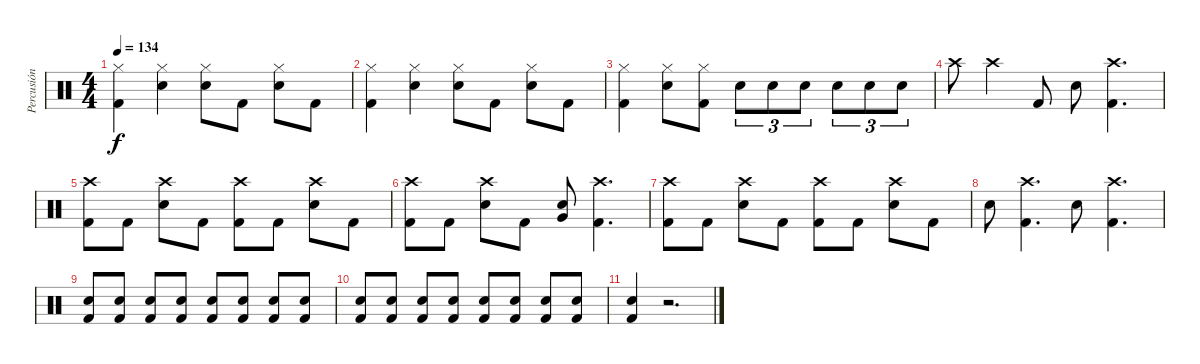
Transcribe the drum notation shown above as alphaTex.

\track ("Percusión" "Percusión") {instrument percussion}
\staff {score}
\articulation defaults
\ts (4 4)
\tempo 134
\clef neutral
\ks c
("Hi-Hat (closed)" "Kick (hit) 2").4{dy f} ("Hi-Hat (closed)" "Snare (hit) 2").4 ("Hi-Hat (closed)" "Snare (hit) 2").8 "Kick (hit) 2".8 ("Hi-Hat (closed)" "Snare (hit) 2").8 "Kick (hit) 2".8 |
("Hi-Hat (closed)" "Kick (hit) 2").4 ("Hi-Hat (closed)" "Snare (hit) 2").4 ("Hi-Hat (closed)" "Snare (hit) 2").8 "Kick (hit) 2".8 ("Hi-Hat (closed)" "Snare (hit) 2").8 "Kick (hit) 2".8 |
("Hi-Hat (closed)" "Kick (hit) 2").4 ("Hi-Hat (closed)" "Snare (hit) 2").8 ("Hi-Hat (closed)" "Kick (hit) 2").8 "Snare (hit) 2".8{tu (3 2)} "Snare (hit) 2".8{tu (3 2)} "Snare (hit) 2".8{tu (3 2)} "Snare (hit) 2".8{tu (3 2)} "Snare (hit) 2".8{tu (3 2)} "Snare (hit) 2".8{tu (3 2)} |
"Crash high (hit)".8 "Crash high (hit)".4 "Kick (hit) 2".8 "Snare (hit) 2".8 ("Crash high (hit)" "Kick (hit) 2").4{d} |
("Crash high (hit)" "Kick (hit) 2").8 "Kick (hit) 2".8 ("Crash high (hit)" "Snare (hit) 2").8 "Kick (hit) 2".8 ("Crash high (hit)" "Kick (hit) 2").8 "Kick (hit) 2".8 ("Crash high (hit)" "Snare (hit) 2").8 "Kick (hit) 2".8 |
("Crash high (hit)" "Kick (hit) 2").8 "Kick (hit) 2".8 ("Crash high (hit)" "Snare (hit) 2").8 "Kick (hit) 2".8 ("Snare (hit) 2" "Very Low Tom (hit)").8 ("Crash high (hit)" "Kick (hit) 2").4{d} |
("Crash high (hit)" "Kick (hit) 2").8 "Kick (hit) 2".8 ("Crash high (hit)" "Snare (hit) 2").8 "Kick (hit) 2".8 ("Crash high (hit)" "Kick (hit) 2").8 "Kick (hit) 2".8 ("Crash high (hit)" "Snare (hit) 2").8 "Kick (hit) 2".8 |
"Snare (hit) 2".8 ("Crash high (hit)" "Kick (hit) 2").4{d} "Snare (hit) 2".8 ("Crash high (hit)" "Kick (hit) 2").4{d} |
("Snare (hit) 2" "Kick (hit) 2").8 ("Snare (hit) 2" "Kick (hit) 2").8 ("Snare (hit) 2" "Kick (hit) 2").8 ("Snare (hit) 2" "Kick (hit) 2").8 ("Snare (hit) 2" "Kick (hit) 2").8 ("Snare (hit) 2" "Kick (hit) 2").8 ("Snare (hit) 2" "Kick (hit) 2").8 ("Snare (hit) 2" "Kick (hit) 2").8 |
("Snare (hit) 2" "Kick (hit) 2").8 ("Snare (hit) 2" "Kick (hit) 2").8 ("Snare (hit) 2" "Kick (hit) 2").8 ("Snare (hit) 2" "Kick (hit) 2").8 ("Snare (hit) 2" "Kick (hit) 2").8 ("Snare (hit) 2" "Kick (hit) 2").8 ("Snare (hit) 2" "Kick (hit) 2").8 ("Snare (hit) 2" "Kick (hit) 2").8 |
("Snare (hit) 2" "Kick (hit) 2").4 r.2{d}
